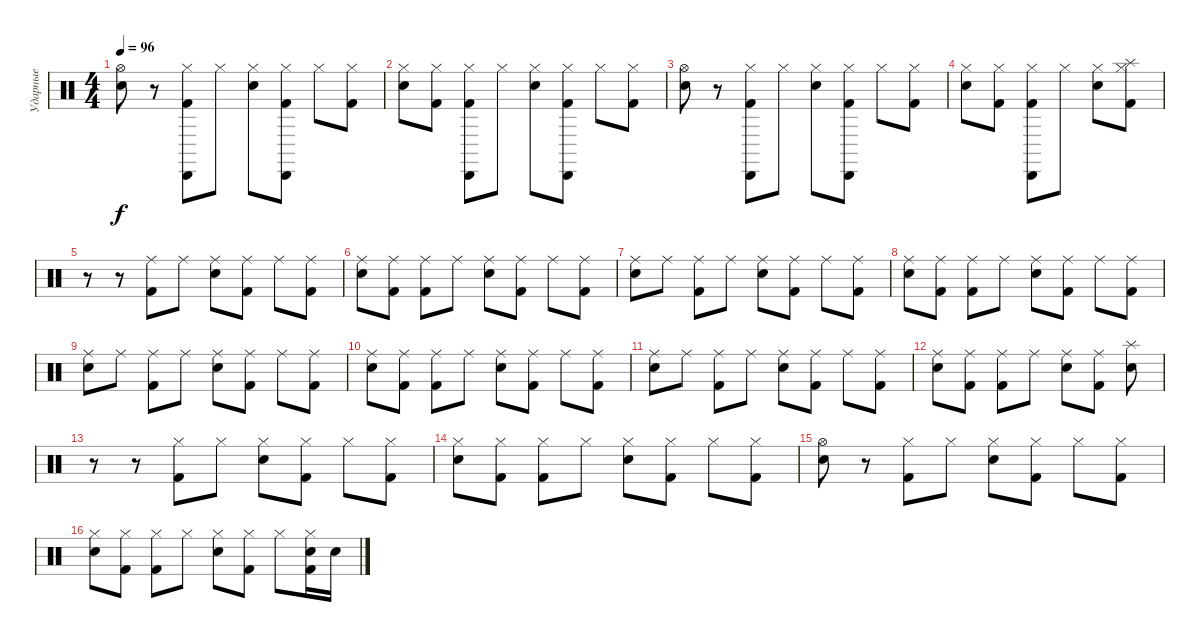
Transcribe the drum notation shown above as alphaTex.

\track ("Ударные" "Ударные") {instrument percussion}
\staff {score}
\articulation defaults
\ts (4 4)
\tempo 96
\clef neutral
\ks c
("Hi-Hat (open)" "Electric Snare (hit)").8{dy f} r.8 ("Hi-Hat (closed)" "Cabasa (hit)" "Kick (hit) 2").8 "Hi-Hat (closed)".8 ("Hi-Hat (closed)" "Snare (hit) 2").8 ("Hi-Hat (closed)" "Cabasa (hit)" "Kick (hit) 2").8 "Hi-Hat (closed)".8 ("Hi-Hat (closed)" "Kick (hit) 2").8 |
("Hi-Hat (closed)" "Snare (hit) 2").8 ("Hi-Hat (closed)" "Kick (hit) 2").8 ("Hi-Hat (closed)" "Cabasa (hit)" "Kick (hit) 2").8 "Hi-Hat (closed)".8 ("Hi-Hat (closed)" "Electric Snare (hit)").8 ("Hi-Hat (closed)" "Cabasa (hit)" "Kick (hit) 2").8 "Hi-Hat (closed)".8 ("Hi-Hat (closed)" "Kick (hit) 2").8 |
("Hi-Hat (open)" "Electric Snare (hit)").8 r.8 ("Hi-Hat (closed)" "Cabasa (hit)" "Kick (hit) 2").8 "Hi-Hat (closed)".8 ("Hi-Hat (closed)" "Snare (hit) 2").8 ("Hi-Hat (closed)" "Cabasa (hit)" "Kick (hit) 2").8 "Hi-Hat (closed)".8 ("Hi-Hat (closed)" "Kick (hit) 2").8 |
("Hi-Hat (closed)" "Snare (hit) 2").8 ("Hi-Hat (closed)" "Kick (hit) 2").8 ("Hi-Hat (closed)" "Cabasa (hit)" "Kick (hit) 2").8 "Hi-Hat (closed)".8 ("Hi-Hat (closed)" "Electric Snare (hit)").8 ("Hi-Hat (closed)" "Splash (hit)" "Kick (hit) 2").8 |
r.8 r.8 ("Ride (middle)" "Kick (hit) 2").8 "Ride (middle)".8 ("Ride (middle)" "Snare (hit) 2").8 ("Ride (middle)" "Kick (hit) 2").8 "Ride (middle)".8 ("Ride (middle)" "Kick (hit) 2").8 |
("Ride (middle)" "Snare (hit) 2").8 ("Ride (middle)" "Kick (hit) 2").8 ("Ride (middle)" "Kick (hit) 2").8 "Ride (middle)".8 ("Ride (middle)" "Electric Snare (hit)").8 ("Ride (middle)" "Kick (hit) 2").8 "Ride (middle)".8 ("Ride (middle)" "Kick (hit) 2").8 |
("Ride (middle)" "Electric Snare (hit)").8 "Ride (middle)".8 ("Ride (middle)" "Kick (hit) 2").8 "Ride (middle)".8 ("Ride (middle)" "Snare (hit) 2").8 ("Ride (middle)" "Kick (hit) 2").8 "Ride (middle)".8 ("Ride (middle)" "Kick (hit) 2").8 |
("Ride (middle)" "Snare (hit) 2").8 ("Ride (middle)" "Kick (hit) 2").8 ("Ride (middle)" "Kick (hit) 2").8 "Ride (middle)".8 ("Ride (middle)" "Electric Snare (hit)").8 ("Ride (middle)" "Kick (hit) 2").8 "Ride (middle)".8 ("Ride (middle)" "Kick (hit) 2").8 |
("Ride (middle)" "Electric Snare (hit)").8 "Ride (middle)".8 ("Ride (middle)" "Kick (hit) 2").8 "Ride (middle)".8 ("Ride (middle)" "Snare (hit) 2").8 ("Ride (middle)" "Kick (hit) 2").8 "Ride (middle)".8 ("Ride (middle)" "Kick (hit) 2").8 |
("Ride (middle)" "Snare (hit) 2").8 ("Ride (middle)" "Kick (hit) 2").8 ("Ride (middle)" "Kick (hit) 2").8 "Ride (middle)".8 ("Ride (middle)" "Electric Snare (hit)").8 ("Ride (middle)" "Kick (hit) 2").8 "Ride (middle)".8 ("Ride (middle)" "Kick (hit) 2").8 |
("Ride (middle)" "Electric Snare (hit)").8 "Ride (middle)".8 ("Ride (middle)" "Kick (hit) 2").8 "Ride (middle)".8 ("Ride (middle)" "Snare (hit) 2").8 ("Ride (middle)" "Kick (hit) 2").8 "Ride (middle)".8 ("Ride (middle)" "Kick (hit) 2").8 |
("Ride (middle)" "Snare (hit) 2").8 ("Ride (middle)" "Kick (hit) 2").8 ("Ride (middle)" "Kick (hit) 2").8 "Ride (middle)".8 ("Ride (middle)" "Electric Snare (hit)").8 ("Ride (middle)" "Kick (hit) 2").8 ("Splash (hit)" "Electric Snare (hit)").8 |
r.8 r.8 ("Hi-Hat (closed)" "Kick (hit) 2").8 "Hi-Hat (closed)".8 ("Hi-Hat (closed)" "Snare (hit) 2").8 ("Hi-Hat (closed)" "Kick (hit) 2").8 "Hi-Hat (closed)".8 ("Hi-Hat (closed)" "Kick (hit) 2").8 |
("Hi-Hat (closed)" "Snare (hit) 2").8 ("Hi-Hat (closed)" "Kick (hit) 2").8 ("Hi-Hat (closed)" "Kick (hit) 2").8 "Hi-Hat (closed)".8 ("Hi-Hat (closed)" "Electric Snare (hit)").8 ("Hi-Hat (closed)" "Kick (hit) 2").8 "Hi-Hat (closed)".8 ("Hi-Hat (closed)" "Kick (hit) 2").8 |
("Hi-Hat (open)" "Electric Snare (hit)").8 r.8 ("Hi-Hat (closed)" "Kick (hit) 2").8 "Hi-Hat (closed)".8 ("Hi-Hat (closed)" "Snare (hit) 2").8 ("Hi-Hat (closed)" "Kick (hit) 2").8 "Hi-Hat (closed)".8 ("Hi-Hat (closed)" "Kick (hit) 2").8 |
("Hi-Hat (closed)" "Snare (hit) 2").8 ("Hi-Hat (closed)" "Kick (hit) 2").8 ("Hi-Hat (closed)" "Kick (hit) 2").8 "Hi-Hat (closed)".8 ("Hi-Hat (closed)" "Electric Snare (hit)").8 ("Hi-Hat (closed)" "Kick (hit) 2").8 "Hi-Hat (closed)".8 ("Hi-Hat (closed)" "Electric Snare (hit)" "Kick (hit) 2").16 "Electric Snare (hit)".16
